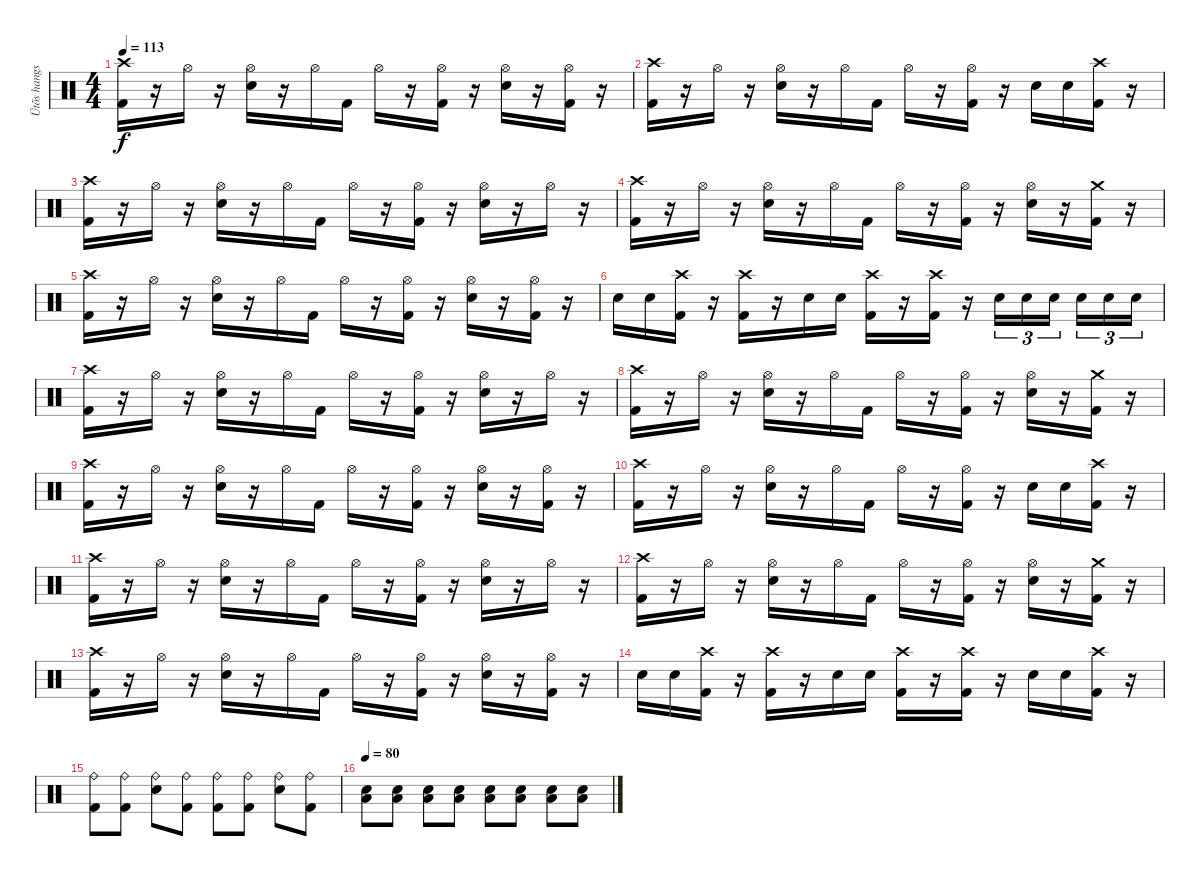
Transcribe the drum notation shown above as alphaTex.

\track ("Ütõs hangszer" "Ütõs hangs") {instrument percussion}
\staff {score}
\articulation defaults
\ts (4 4)
\tempo 113
\clef neutral
\ks c
("Crash high (hit)" "Kick (hit) 2").16{dy f} r.16 "Hi-Hat (open)".16 r.16 ("Hi-Hat (open)" "Electric Snare (hit)").16 r.16 "Hi-Hat (open)".16 "Kick (hit) 2".16 "Hi-Hat (open)".16 r.16 ("Hi-Hat (open)" "Kick (hit) 2").16 r.16 ("Hi-Hat (open)" "Electric Snare (hit)").16 r.16 ("Hi-Hat (open)" "Kick (hit) 2").16 r.16 |
("Crash high (hit)" "Kick (hit) 2").16 r.16 "Hi-Hat (open)".16 r.16 ("Hi-Hat (open)" "Electric Snare (hit)").16 r.16 "Hi-Hat (open)".16 "Kick (hit) 2".16 "Hi-Hat (open)".16 r.16 ("Hi-Hat (open)" "Kick (hit) 2").16 r.16 "Electric Snare (hit)".16 "Electric Snare (hit)".16 ("Crash high (hit)" "Kick (hit) 2").16 r.16 |
("Crash high (hit)" "Kick (hit) 2").16 r.16 "Hi-Hat (open)".16 r.16 ("Hi-Hat (open)" "Electric Snare (hit)").16 r.16 "Hi-Hat (open)".16 "Kick (hit) 2".16 "Hi-Hat (open)".16 r.16 ("Hi-Hat (open)" "Kick (hit) 2").16 r.16 ("Hi-Hat (open)" "Electric Snare (hit)").16 r.16 "Hi-Hat (open)".16 r.16 |
("Crash high (hit)" "Kick (hit) 2").16 r.16 "Hi-Hat (open)".16 r.16 ("Hi-Hat (open)" "Electric Snare (hit)").16 r.16 "Hi-Hat (open)".16 "Kick (hit) 2".16 "Hi-Hat (open)".16 r.16 ("Hi-Hat (open)" "Kick (hit) 2").16 r.16 ("Hi-Hat (open)" "Electric Snare (hit)").16 r.16 ("Crash medium (hit)" "Kick (hit) 2").16 r.16 |
("Crash high (hit)" "Kick (hit) 2").16 r.16 "Hi-Hat (open)".16 r.16 ("Hi-Hat (open)" "Electric Snare (hit)").16 r.16 "Hi-Hat (open)".16 "Kick (hit) 2".16 "Hi-Hat (open)".16 r.16 ("Hi-Hat (open)" "Kick (hit) 2").16 r.16 ("Hi-Hat (open)" "Electric Snare (hit)").16 r.16 ("Hi-Hat (open)" "Kick (hit) 2").16 r.16 |
"Electric Snare (hit)".16 "Electric Snare (hit)".16 ("Crash high (hit)" "Kick (hit) 2").16 r.16 ("Crash high (hit)" "Kick (hit) 2").16 r.16 "Electric Snare (hit)".16 "Electric Snare (hit)".16 ("Crash high (hit)" "Kick (hit) 2").16 r.16 ("Crash high (hit)" "Kick (hit) 2").16 r.16 "Electric Snare (hit)".16{tu (3 2)} "Electric Snare (hit)".16{tu (3 2)} "Electric Snare (hit)".16{tu (3 2)} "Electric Snare (hit)".16{tu (3 2)} "Electric Snare (hit)".16{tu (3 2)} "Electric Snare (hit)".16{tu (3 2)} |
("Crash high (hit)" "Kick (hit) 2").16 r.16 "Hi-Hat (open)".16 r.16 ("Hi-Hat (open)" "Electric Snare (hit)").16 r.16 "Hi-Hat (open)".16 "Kick (hit) 2".16 "Hi-Hat (open)".16 r.16 ("Hi-Hat (open)" "Kick (hit) 2").16 r.16 ("Hi-Hat (open)" "Electric Snare (hit)").16 r.16 "Hi-Hat (open)".16 r.16 |
("Crash high (hit)" "Kick (hit) 2").16 r.16 "Hi-Hat (open)".16 r.16 ("Hi-Hat (open)" "Electric Snare (hit)").16 r.16 "Hi-Hat (open)".16 "Kick (hit) 2".16 "Hi-Hat (open)".16 r.16 ("Hi-Hat (open)" "Kick (hit) 2").16 r.16 ("Hi-Hat (open)" "Electric Snare (hit)").16 r.16 ("Crash medium (hit)" "Kick (hit) 2").16 r.16 |
("Crash high (hit)" "Kick (hit) 2").16 r.16 "Hi-Hat (open)".16 r.16 ("Hi-Hat (open)" "Electric Snare (hit)").16 r.16 "Hi-Hat (open)".16 "Kick (hit) 2".16 "Hi-Hat (open)".16 r.16 ("Hi-Hat (open)" "Kick (hit) 2").16 r.16 ("Hi-Hat (open)" "Electric Snare (hit)").16 r.16 ("Hi-Hat (open)" "Kick (hit) 2").16 r.16 |
("Crash high (hit)" "Kick (hit) 2").16 r.16 "Hi-Hat (open)".16 r.16 ("Hi-Hat (open)" "Electric Snare (hit)").16 r.16 "Hi-Hat (open)".16 "Kick (hit) 2".16 "Hi-Hat (open)".16 r.16 ("Hi-Hat (open)" "Kick (hit) 2").16 r.16 "Electric Snare (hit)".16 "Electric Snare (hit)".16 ("Crash high (hit)" "Kick (hit) 2").16 r.16 |
("Crash high (hit)" "Kick (hit) 2").16 r.16 "Hi-Hat (open)".16 r.16 ("Hi-Hat (open)" "Electric Snare (hit)").16 r.16 "Hi-Hat (open)".16 "Kick (hit) 2".16 "Hi-Hat (open)".16 r.16 ("Hi-Hat (open)" "Kick (hit) 2").16 r.16 ("Hi-Hat (open)" "Electric Snare (hit)").16 r.16 "Hi-Hat (open)".16 r.16 |
("Crash high (hit)" "Kick (hit) 2").16 r.16 "Hi-Hat (open)".16 r.16 ("Hi-Hat (open)" "Electric Snare (hit)").16 r.16 "Hi-Hat (open)".16 "Kick (hit) 2".16 "Hi-Hat (open)".16 r.16 ("Hi-Hat (open)" "Kick (hit) 2").16 r.16 ("Hi-Hat (open)" "Electric Snare (hit)").16 r.16 ("Crash medium (hit)" "Kick (hit) 2").16 r.16 |
("Crash high (hit)" "Kick (hit) 2").16 r.16 "Hi-Hat (open)".16 r.16 ("Hi-Hat (open)" "Electric Snare (hit)").16 r.16 "Hi-Hat (open)".16 "Kick (hit) 2".16 "Hi-Hat (open)".16 r.16 ("Hi-Hat (open)" "Kick (hit) 2").16 r.16 ("Hi-Hat (open)" "Electric Snare (hit)").16 r.16 ("Hi-Hat (open)" "Kick (hit) 2").16 r.16 |
"Electric Snare (hit)".16 "Electric Snare (hit)".16 ("Crash high (hit)" "Kick (hit) 2").16 r.16 ("Crash high (hit)" "Kick (hit) 2").16 r.16 "Electric Snare (hit)".16 "Electric Snare (hit)".16 ("Crash high (hit)" "Kick (hit) 2").16 r.16 ("Crash high (hit)" "Kick (hit) 2").16 r.16 "Electric Snare (hit)".16 "Electric Snare (hit)".16 ("Crash high (hit)" "Kick (hit) 2").16 r.16 |
("Ride (bell)" "Kick (hit) 2").8 ("Ride (bell)" "Kick (hit) 2").8 ("Ride (bell)" "Electric Snare (hit)").8 ("Ride (bell)" "Kick (hit) 2").8 ("Ride (bell)" "Kick (hit) 2").8 ("Ride (bell)" "Kick (hit) 2").8 ("Ride (bell)" "Electric Snare (hit)").8 ("Ride (bell)" "Kick (hit) 2").8 |
\tempo 80
("Low Floor Tom (hit)" "Electric Snare (hit)").8 ("Low Floor Tom (hit)" "Electric Snare (hit)").8 ("Low Floor Tom (hit)" "Electric Snare (hit)").8 ("Low Floor Tom (hit)" "Electric Snare (hit)").8 ("Low Floor Tom (hit)" "Electric Snare (hit)").8 ("Low Floor Tom (hit)" "Electric Snare (hit)").8 ("Low Floor Tom (hit)" "Electric Snare (hit)").8 ("Low Floor Tom (hit)" "Electric Snare (hit)").8
